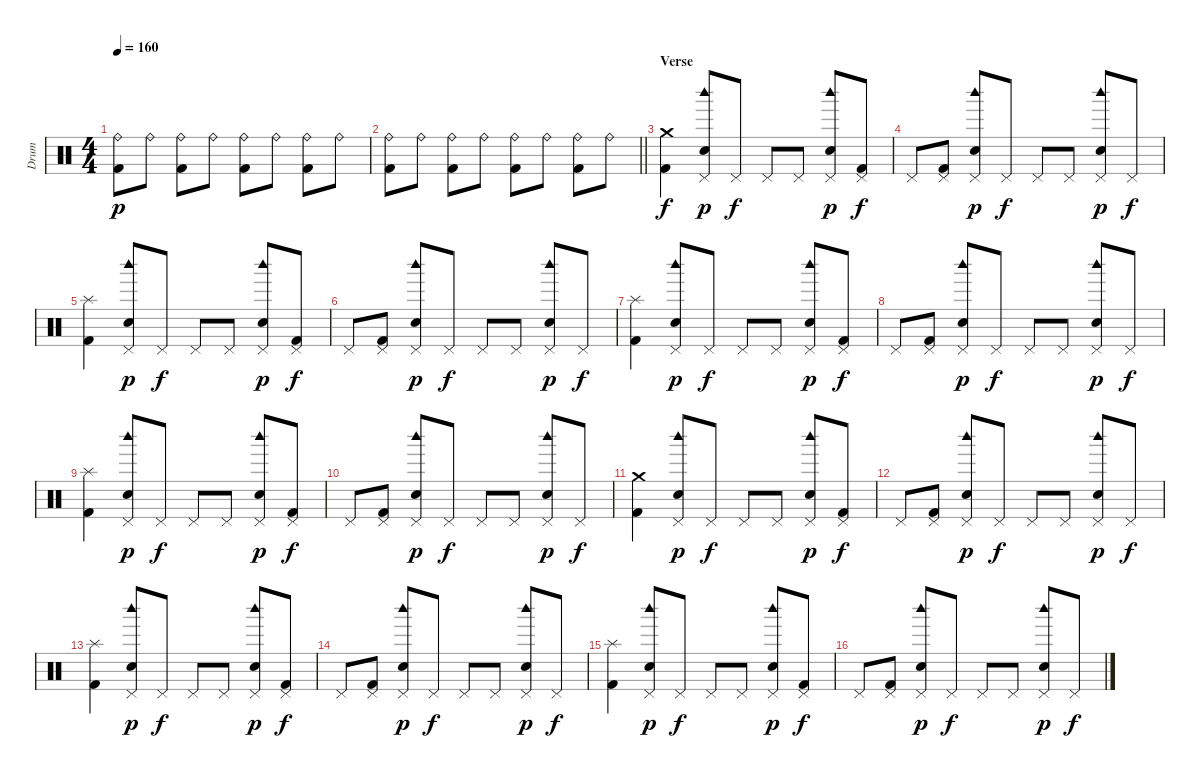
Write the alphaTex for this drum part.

\track ("Drum" "Drum") {instrument percussion}
\staff {score}
\articulation defaults
\ts (4 4)
\tempo 160
\clef neutral
\ks c
("Ride (bell)" "Kick (hit) 2").8{dy p} "Ride (bell)".8 ("Ride (bell)" "Kick (hit) 2").8 "Ride (bell)".8 ("Ride (bell)" "Kick (hit) 2").8 "Ride (bell)".8 ("Ride (bell)" "Kick (hit) 2").8 "Ride (bell)".8 |
\barLineRight lightlight
("Ride (bell)" "Kick (hit) 2").8 "Ride (bell)".8 ("Ride (bell)" "Kick (hit) 2").8 "Ride (bell)".8 ("Ride (bell)" "Kick (hit) 2").8 "Ride (bell)".8 ("Ride (bell)" "Kick (hit) 2").8 "Ride (bell)".8 |
\section ("" "Verse")
("Crash medium (hit)" "Kick (hit) 2").4{dy f} ("Pedal Hi-Hat (hit)" "Woodblock high (hit)" "Electric Snare (hit)").8{dy p} "Pedal Hi-Hat (hit)".8{dy f} "Pedal Hi-Hat (hit)".8 "Pedal Hi-Hat (hit)".8 ("Pedal Hi-Hat (hit)" "Woodblock high (hit)" "Electric Snare (hit)").8{dy p} ("Pedal Hi-Hat (hit)" "Kick (hit) 2").8{dy f} |
"Pedal Hi-Hat (hit)".8 ("Pedal Hi-Hat (hit)" "Kick (hit) 2").8 ("Pedal Hi-Hat (hit)" "Woodblock high (hit)" "Electric Snare (hit)").8{dy p} "Pedal Hi-Hat (hit)".8{dy f} "Pedal Hi-Hat (hit)".8 "Pedal Hi-Hat (hit)".8 ("Pedal Hi-Hat (hit)" "Woodblock high (hit)" "Electric Snare (hit)").8{dy p} "Pedal Hi-Hat (hit)".8{dy f} |
("Splash (hit)" "Kick (hit) 2").4 ("Pedal Hi-Hat (hit)" "Woodblock high (hit)" "Electric Snare (hit)").8{dy p} "Pedal Hi-Hat (hit)".8{dy f} "Pedal Hi-Hat (hit)".8 "Pedal Hi-Hat (hit)".8 ("Pedal Hi-Hat (hit)" "Woodblock high (hit)" "Electric Snare (hit)").8{dy p} ("Pedal Hi-Hat (hit)" "Kick (hit) 2").8{dy f} |
"Pedal Hi-Hat (hit)".8 ("Pedal Hi-Hat (hit)" "Kick (hit) 2").8 ("Pedal Hi-Hat (hit)" "Woodblock high (hit)" "Electric Snare (hit)").8{dy p} "Pedal Hi-Hat (hit)".8{dy f} "Pedal Hi-Hat (hit)".8 "Pedal Hi-Hat (hit)".8 ("Pedal Hi-Hat (hit)" "Woodblock high (hit)" "Electric Snare (hit)").8{dy p} "Pedal Hi-Hat (hit)".8{dy f} |
("Splash (hit)" "Kick (hit) 2").4 ("Pedal Hi-Hat (hit)" "Woodblock high (hit)" "Electric Snare (hit)").8{dy p} "Pedal Hi-Hat (hit)".8{dy f} "Pedal Hi-Hat (hit)".8 "Pedal Hi-Hat (hit)".8 ("Pedal Hi-Hat (hit)" "Woodblock high (hit)" "Electric Snare (hit)").8{dy p} ("Pedal Hi-Hat (hit)" "Kick (hit) 2").8{dy f} |
"Pedal Hi-Hat (hit)".8 ("Pedal Hi-Hat (hit)" "Kick (hit) 2").8 ("Pedal Hi-Hat (hit)" "Woodblock high (hit)" "Electric Snare (hit)").8{dy p} "Pedal Hi-Hat (hit)".8{dy f} "Pedal Hi-Hat (hit)".8 "Pedal Hi-Hat (hit)".8 ("Pedal Hi-Hat (hit)" "Woodblock high (hit)" "Electric Snare (hit)").8{dy p} "Pedal Hi-Hat (hit)".8{dy f} |
("Splash (hit)" "Kick (hit) 2").4 ("Pedal Hi-Hat (hit)" "Woodblock high (hit)" "Electric Snare (hit)").8{dy p} "Pedal Hi-Hat (hit)".8{dy f} "Pedal Hi-Hat (hit)".8 "Pedal Hi-Hat (hit)".8 ("Pedal Hi-Hat (hit)" "Woodblock high (hit)" "Electric Snare (hit)").8{dy p} ("Pedal Hi-Hat (hit)" "Kick (hit) 2").8{dy f} |
"Pedal Hi-Hat (hit)".8 ("Pedal Hi-Hat (hit)" "Kick (hit) 2").8 ("Pedal Hi-Hat (hit)" "Woodblock high (hit)" "Electric Snare (hit)").8{dy p} "Pedal Hi-Hat (hit)".8{dy f} "Pedal Hi-Hat (hit)".8 "Pedal Hi-Hat (hit)".8 ("Pedal Hi-Hat (hit)" "Woodblock high (hit)" "Electric Snare (hit)").8{dy p} "Pedal Hi-Hat (hit)".8{dy f} |
("Crash medium (hit)" "Kick (hit) 2").4 ("Pedal Hi-Hat (hit)" "Woodblock high (hit)" "Electric Snare (hit)").8{dy p} "Pedal Hi-Hat (hit)".8{dy f} "Pedal Hi-Hat (hit)".8 "Pedal Hi-Hat (hit)".8 ("Pedal Hi-Hat (hit)" "Woodblock high (hit)" "Electric Snare (hit)").8{dy p} ("Pedal Hi-Hat (hit)" "Kick (hit) 2").8{dy f} |
"Pedal Hi-Hat (hit)".8 ("Pedal Hi-Hat (hit)" "Kick (hit) 2").8 ("Pedal Hi-Hat (hit)" "Woodblock high (hit)" "Electric Snare (hit)").8{dy p} "Pedal Hi-Hat (hit)".8{dy f} "Pedal Hi-Hat (hit)".8 "Pedal Hi-Hat (hit)".8 ("Pedal Hi-Hat (hit)" "Woodblock high (hit)" "Electric Snare (hit)").8{dy p} "Pedal Hi-Hat (hit)".8{dy f} |
("Splash (hit)" "Kick (hit) 2").4 ("Pedal Hi-Hat (hit)" "Woodblock high (hit)" "Electric Snare (hit)").8{dy p} "Pedal Hi-Hat (hit)".8{dy f} "Pedal Hi-Hat (hit)".8 "Pedal Hi-Hat (hit)".8 ("Pedal Hi-Hat (hit)" "Woodblock high (hit)" "Electric Snare (hit)").8{dy p} ("Pedal Hi-Hat (hit)" "Kick (hit) 2").8{dy f} |
"Pedal Hi-Hat (hit)".8 ("Pedal Hi-Hat (hit)" "Kick (hit) 2").8 ("Pedal Hi-Hat (hit)" "Woodblock high (hit)" "Electric Snare (hit)").8{dy p} "Pedal Hi-Hat (hit)".8{dy f} "Pedal Hi-Hat (hit)".8 "Pedal Hi-Hat (hit)".8 ("Pedal Hi-Hat (hit)" "Woodblock high (hit)" "Electric Snare (hit)").8{dy p} "Pedal Hi-Hat (hit)".8{dy f} |
("Splash (hit)" "Kick (hit) 2").4 ("Pedal Hi-Hat (hit)" "Woodblock high (hit)" "Electric Snare (hit)").8{dy p} "Pedal Hi-Hat (hit)".8{dy f} "Pedal Hi-Hat (hit)".8 "Pedal Hi-Hat (hit)".8 ("Pedal Hi-Hat (hit)" "Woodblock high (hit)" "Electric Snare (hit)").8{dy p} ("Pedal Hi-Hat (hit)" "Kick (hit) 2").8{dy f} |
"Pedal Hi-Hat (hit)".8 ("Pedal Hi-Hat (hit)" "Kick (hit) 2").8 ("Pedal Hi-Hat (hit)" "Woodblock high (hit)" "Electric Snare (hit)").8{dy p} "Pedal Hi-Hat (hit)".8{dy f} "Pedal Hi-Hat (hit)".8 "Pedal Hi-Hat (hit)".8 ("Pedal Hi-Hat (hit)" "Woodblock high (hit)" "Electric Snare (hit)").8{dy p} "Pedal Hi-Hat (hit)".8{dy f}
